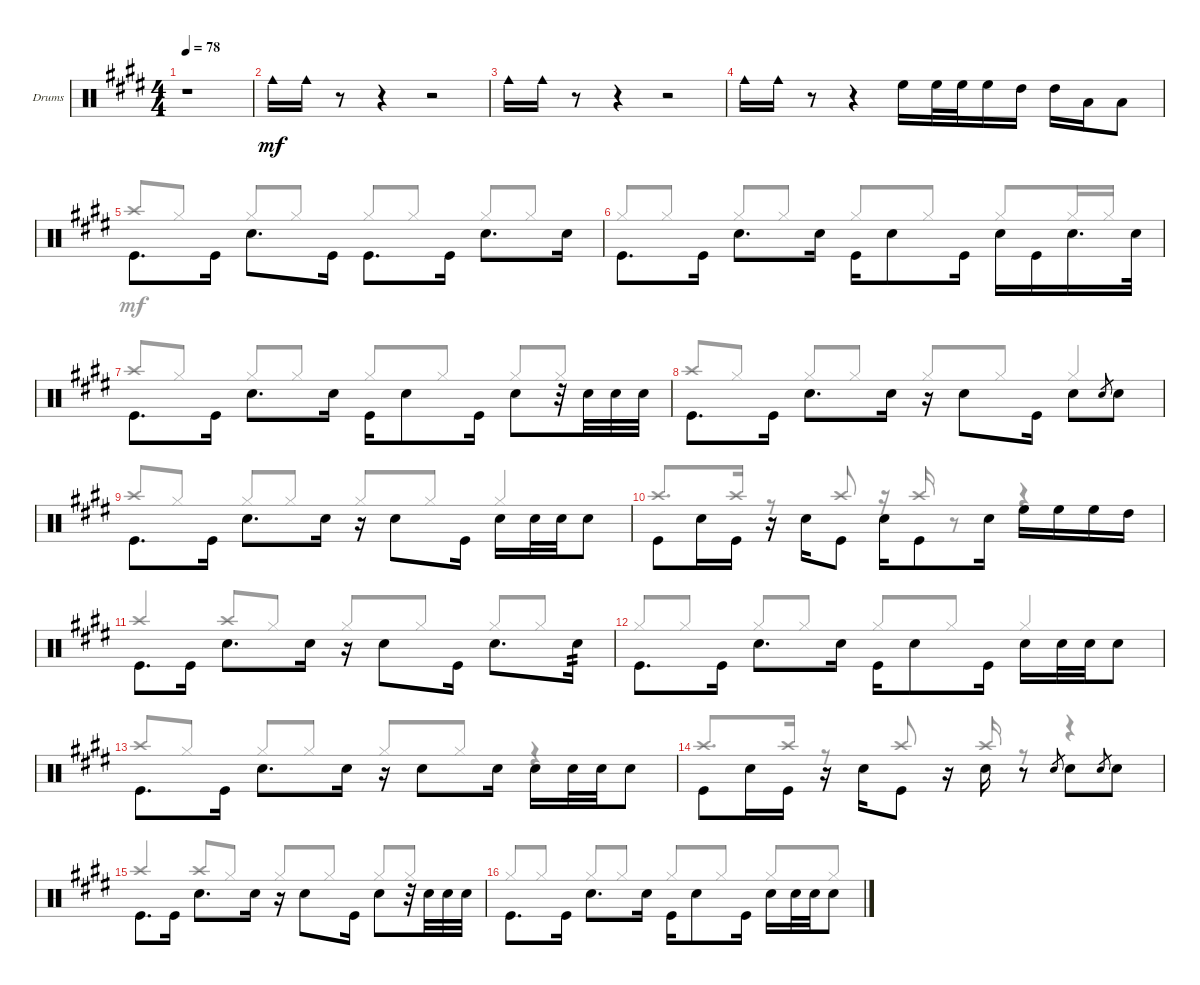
\defaultSystemsLayout 4
\bracketExtendMode groupsimilarinstruments
\firstSystemTrackNameOrientation horizontal
\otherSystemsTrackNameOrientation horizontal
\track ("PETER CRISS" "Drums") {mute instrument percussion}
\staff {score}
\articulation defaults
\voice
\ts (4 4)
\tempo 78
\clef neutral
\ks e
r.1{dy mf} |
"Cowbell medium (hit)".16 "Cowbell medium (hit)".16 r.8 r.4 r.2 |
"Cowbell medium (hit)".16 "Cowbell medium (hit)".16 r.8 r.4 r.2 |
"Cowbell medium (hit)".16 "Cowbell medium (hit)".16 r.8 r.4 "High Floor Tom (hit)".16 "High Floor Tom (hit)".32 "High Floor Tom (hit)".32 "High Floor Tom (hit)".16 "High Tom (hit)".16 "High Tom (hit)".16 "Low Tom (hit)".16 "Low Tom (hit)".8 |
"Kick (hit)".8{d beam invert} "Kick (hit)".16 "Snare (hit) 2".8{d beam invert} "Kick (hit)".16 "Kick (hit)".8{d beam invert} "Kick (hit)".16 "Snare (hit) 2".8{d beam invert} "Snare (hit) 2".16 |
"Kick (hit)".8{d beam invert} "Kick (hit)".16 "Snare (hit) 2".8{d beam invert} "Snare (hit) 2".16 "Kick (hit)".16{beam invert} "Snare (hit) 2".8 "Kick (hit)".16 "Snare (hit) 2".16{beam invert} "Kick (hit)".16 "Snare (hit) 2".16{d} "Snare (hit) 2".32 |
"Kick (hit)".8{d beam invert} "Kick (hit)".16 "Snare (hit) 2".8{d beam invert} "Snare (hit) 2".16 "Kick (hit)".16{beam invert} "Snare (hit) 2".8 "Kick (hit)".16 "Snare (hit) 2".8{beam invert} r.32 "Snare (hit) 2".32 "Snare (hit) 2".32 "Snare (hit) 2".32 |
"Kick (hit)".8{d beam invert} "Kick (hit)".16 "Snare (hit) 2".8{d beam invert} "Snare (hit) 2".16 r.16{beam invert} "Snare (hit) 2".8{beam invert} "Kick (hit)".16 "Snare (hit) 2".8{beam invert} "Snare (hit) 2".8{gr} "Snare (hit) 2".8 |
"Kick (hit)".8{d beam invert} "Kick (hit)".16 "Snare (hit) 2".8{d beam invert} "Snare (hit) 2".16 r.16{beam invert} "Snare (hit) 2".8{beam invert} "Kick (hit)".16 "Snare (hit) 2".16{beam invert} "Snare (hit) 2".32 "Snare (hit) 2".32 "Snare (hit) 2".8 |
"Kick (hit)".8{beam invert} "Snare (hit) 2".16 "Kick (hit)".16 r.16 "Snare (hit) 2".16{beam invert} "Kick (hit)".8 "Snare (hit) 2".16{beam invert} "Kick (hit)".8 "Snare (hit) 2".16 "High Floor Tom (hit)".16{beam invert} "High Floor Tom (hit)".16 "High Floor Tom (hit)".16 "High Tom (hit)".16 |
"Kick (hit)".8{d beam invert} "Kick (hit)".16 "Snare (hit) 2".8{d beam invert} "Snare (hit) 2".16 r.16 "Snare (hit) 2".8{beam invert} "Kick (hit)".16 "Snare (hit) 2".8{d beam invert} "Snare (hit) 2".16{tp 2} |
"Kick (hit)".8{d beam invert} "Kick (hit)".16 "Snare (hit) 2".8{d beam invert} "Snare (hit) 2".16 "Kick (hit)".16{beam invert} "Snare (hit) 2".8 "Kick (hit)".16 "Snare (hit) 2".16{beam invert} "Snare (hit) 2".32 "Snare (hit) 2".32 "Snare (hit) 2".8 |
"Kick (hit)".8{d beam invert} "Kick (hit)".16 "Snare (hit) 2".8{d beam invert} "Snare (hit) 2".16 r.16 "Snare (hit) 2".8{beam invert} "Snare (hit) 2".16 "Snare (hit) 2".16{beam invert} "Snare (hit) 2".32 "Snare (hit) 2".32 "Snare (hit) 2".8 |
"Kick (hit)".8{beam invert} "Snare (hit) 2".16 "Kick (hit)".16 r.16 "Snare (hit) 2".16{beam invert} "Kick (hit)".8 r.16 "Snare (hit) 2".16{beam invert} r.8 "Snare (hit) 2".8{gr} "Snare (hit) 2".8{beam invert} "Snare (hit) 2".8{gr} "Snare (hit) 2".8 |
"Kick (hit)".8{d beam invert} "Kick (hit)".16 "Snare (hit) 2".8{d beam invert} "Snare (hit) 2".16 r.16 "Snare (hit) 2".8{beam invert} "Kick (hit)".16 "Snare (hit) 2".8{beam invert} r.32 "Snare (hit) 2".32 "Snare (hit) 2".32 "Snare (hit) 2".32 |
"Kick (hit)".8{d beam invert} "Kick (hit)".16 "Snare (hit) 2".8{d beam invert} "Snare (hit) 2".16 "Kick (hit)".16{beam invert} "Snare (hit) 2".8 "Kick (hit)".16 "Snare (hit) 2".16{beam invert} "Snare (hit) 2".32 "Snare (hit) 2".32 "Snare (hit) 2".8
\voice
\clef neutral
\ottava regular
\simile none
\ks e
|
|
|
|
"Crash high (hit)".8{beam invert} "Hi-Hat (closed)".8 "Hi-Hat (closed)".8{beam invert} "Hi-Hat (closed)".8 "Hi-Hat (closed)".8{beam invert} "Hi-Hat (closed)".8 "Hi-Hat (closed)".8{beam invert} "Hi-Hat (closed)".8 |
"Hi-Hat (closed)".8{beam invert} "Hi-Hat (closed)".8 "Hi-Hat (closed)".8{beam invert} "Hi-Hat (closed)".8 "Hi-Hat (closed)".8{beam invert} "Hi-Hat (closed)".8 "Hi-Hat (closed)".8{beam invert} "Hi-Hat (closed)".16 "Hi-Hat (closed)".16 |
"Crash high (hit)".8{beam invert} "Hi-Hat (closed)".8 "Hi-Hat (closed)".8{beam invert} "Hi-Hat (closed)".8 "Hi-Hat (closed)".8{beam invert} "Hi-Hat (closed)".8 "Hi-Hat (closed)".8{beam invert} "Hi-Hat (closed)".8 |
"Crash high (hit)".8{beam invert} "Hi-Hat (closed)".8 "Hi-Hat (closed)".8{beam invert} "Hi-Hat (closed)".8 "Hi-Hat (closed)".8{beam invert} "Hi-Hat (closed)".8 "Hi-Hat (closed)".4{beam invert} |
"Crash high (hit)".8{beam invert} "Hi-Hat (closed)".8 "Hi-Hat (closed)".8{beam invert} "Hi-Hat (closed)".8 "Hi-Hat (closed)".8{beam invert} "Hi-Hat (closed)".8 "Hi-Hat (closed)".4{beam invert} |
"Crash high (hit)".8{d beam invert} "Crash high (hit)".16 r.8 "Crash high (hit)".8{beam invert} r.16 "Crash high (hit)".16{beam invert} r.8 r.4 |
"Crash high (hit)".4{beam invert} "Crash high (hit)".8{beam invert} "Hi-Hat (closed)".8 "Hi-Hat (closed)".8{beam invert} "Hi-Hat (closed)".8 "Hi-Hat (closed)".8{beam invert} "Hi-Hat (closed)".8 |
"Hi-Hat (closed)".8{beam invert} "Hi-Hat (closed)".8 "Hi-Hat (closed)".8{beam invert} "Hi-Hat (closed)".8 "Hi-Hat (closed)".8{beam invert} "Hi-Hat (closed)".8 "Hi-Hat (closed)".4{beam invert} |
"Crash high (hit)".8{beam invert} "Hi-Hat (closed)".8 "Hi-Hat (closed)".8{beam invert} "Hi-Hat (closed)".8 "Hi-Hat (closed)".8{beam invert} "Hi-Hat (closed)".8 r.4 |
"Crash high (hit)".8{d beam invert} "Crash high (hit)".16 r.8 "Crash high (hit)".8{beam invert} r.16 "Crash high (hit)".16{beam invert} r.8 r.4 |
"Crash high (hit)".4{beam invert} "Crash high (hit)".8{beam invert} "Hi-Hat (closed)".8 "Hi-Hat (closed)".8{beam invert} "Hi-Hat (closed)".8 "Hi-Hat (closed)".8{beam invert} "Hi-Hat (closed)".8 |
"Hi-Hat (closed)".8{beam invert} "Hi-Hat (closed)".8 "Hi-Hat (closed)".8{beam invert} "Hi-Hat (closed)".8 "Hi-Hat (closed)".8{beam invert} "Hi-Hat (closed)".8 "Hi-Hat (closed)".8{beam invert} "Hi-Hat (closed)".8
